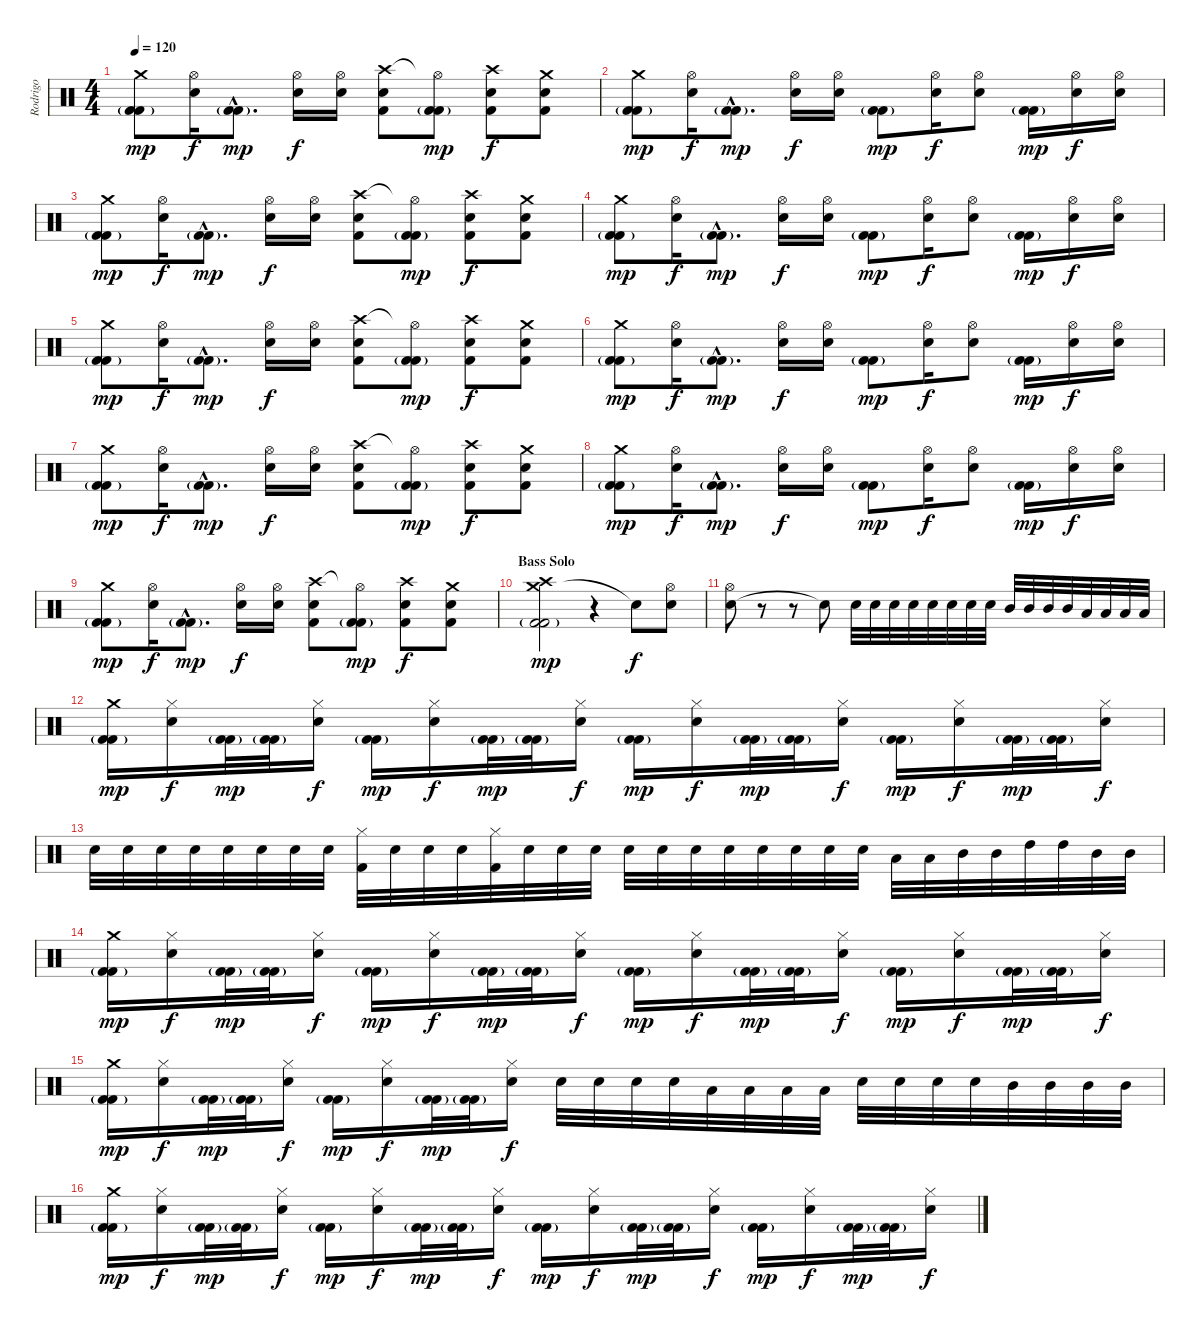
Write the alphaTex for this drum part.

\track ("Rodrigo" "Rodrigo") {instrument percussion}
\staff {score}
\articulation defaults
\ts (4 4)
\tempo 120
\clef neutral
\ks c
("Crash medium (hit)" "Kick (hit) 2"{g} "Kick (hit) 2").8{dy mp} ("Hi-Hat (open)" "Snare (hit) 2").16{dy f} ("Kick (hit) 2"{g hac} "Kick (hit) 2"{hac}).8{d dy mp} ("Hi-Hat (open)" "Snare (hit) 2").16{dy f} ("Hi-Hat (open)" "Snare (hit) 2").16 ("Crash high (hit)" "Snare (hit) 2" "Kick (hit) 2").8 ("Hi-Hat (open)"{t} "Kick (hit) 2"{g} "Kick (hit) 2").8{dy mp} ("Crash high (hit)" "Snare (hit) 2" "Kick (hit) 2").8{dy f} ("Crash medium (hit)" "Snare (hit) 2" "Kick (hit) 2").8 |
("Crash medium (hit)" "Kick (hit) 2"{g} "Kick (hit) 2").8{dy mp} ("Hi-Hat (open)" "Snare (hit) 2").16{dy f} ("Kick (hit) 2"{g hac} "Kick (hit) 2"{hac}).8{d dy mp} ("Hi-Hat (open)" "Snare (hit) 2").16{dy f} ("Hi-Hat (open)" "Snare (hit) 2").16 ("Kick (hit) 2"{g} "Kick (hit) 2").8{dy mp} ("Hi-Hat (open)" "Snare (hit) 2").16{dy f} ("Hi-Hat (open)" "Snare (hit) 2").8 ("Kick (hit) 2"{g} "Kick (hit) 2").16{dy mp} ("Hi-Hat (open)" "Snare (hit) 2").16{dy f} ("Hi-Hat (open)" "Snare (hit) 2").16 |
("Crash medium (hit)" "Kick (hit) 2"{g} "Kick (hit) 2").8{dy mp} ("Hi-Hat (open)" "Snare (hit) 2").16{dy f} ("Kick (hit) 2"{g hac} "Kick (hit) 2"{hac}).8{d dy mp} ("Hi-Hat (open)" "Snare (hit) 2").16{dy f} ("Hi-Hat (open)" "Snare (hit) 2").16 ("Crash high (hit)" "Snare (hit) 2" "Kick (hit) 2").8 ("Hi-Hat (open)"{t} "Kick (hit) 2"{g} "Kick (hit) 2").8{dy mp} ("Crash high (hit)" "Snare (hit) 2" "Kick (hit) 2").8{dy f} ("Crash medium (hit)" "Snare (hit) 2" "Kick (hit) 2").8 |
("Crash medium (hit)" "Kick (hit) 2"{g} "Kick (hit) 2").8{dy mp} ("Hi-Hat (open)" "Snare (hit) 2").16{dy f} ("Kick (hit) 2"{g hac} "Kick (hit) 2"{hac}).8{d dy mp} ("Hi-Hat (open)" "Snare (hit) 2").16{dy f} ("Hi-Hat (open)" "Snare (hit) 2").16 ("Kick (hit) 2"{g} "Kick (hit) 2").8{dy mp} ("Hi-Hat (open)" "Snare (hit) 2").16{dy f} ("Hi-Hat (open)" "Snare (hit) 2").8 ("Kick (hit) 2"{g} "Kick (hit) 2").16{dy mp} ("Hi-Hat (open)" "Snare (hit) 2").16{dy f} ("Hi-Hat (open)" "Snare (hit) 2").16 |
("Crash medium (hit)" "Kick (hit) 2"{g} "Kick (hit) 2").8{dy mp} ("Hi-Hat (open)" "Snare (hit) 2").16{dy f} ("Kick (hit) 2"{g hac} "Kick (hit) 2"{hac}).8{d dy mp} ("Hi-Hat (open)" "Snare (hit) 2").16{dy f} ("Hi-Hat (open)" "Snare (hit) 2").16 ("Crash high (hit)" "Snare (hit) 2" "Kick (hit) 2").8 ("Hi-Hat (open)"{t} "Kick (hit) 2"{g} "Kick (hit) 2").8{dy mp} ("Crash high (hit)" "Snare (hit) 2" "Kick (hit) 2").8{dy f} ("Crash medium (hit)" "Snare (hit) 2" "Kick (hit) 2").8 |
("Crash medium (hit)" "Kick (hit) 2"{g} "Kick (hit) 2").8{dy mp} ("Hi-Hat (open)" "Snare (hit) 2").16{dy f} ("Kick (hit) 2"{g hac} "Kick (hit) 2"{hac}).8{d dy mp} ("Hi-Hat (open)" "Snare (hit) 2").16{dy f} ("Hi-Hat (open)" "Snare (hit) 2").16 ("Kick (hit) 2"{g} "Kick (hit) 2").8{dy mp} ("Hi-Hat (open)" "Snare (hit) 2").16{dy f} ("Hi-Hat (open)" "Snare (hit) 2").8 ("Kick (hit) 2"{g} "Kick (hit) 2").16{dy mp} ("Hi-Hat (open)" "Snare (hit) 2").16{dy f} ("Hi-Hat (open)" "Snare (hit) 2").16 |
("Crash medium (hit)" "Kick (hit) 2"{g} "Kick (hit) 2").8{dy mp} ("Hi-Hat (open)" "Snare (hit) 2").16{dy f} ("Kick (hit) 2"{g hac} "Kick (hit) 2"{hac}).8{d dy mp} ("Hi-Hat (open)" "Snare (hit) 2").16{dy f} ("Hi-Hat (open)" "Snare (hit) 2").16 ("Crash high (hit)" "Snare (hit) 2" "Kick (hit) 2").8 ("Hi-Hat (open)"{t} "Kick (hit) 2"{g} "Kick (hit) 2").8{dy mp} ("Crash high (hit)" "Snare (hit) 2" "Kick (hit) 2").8{dy f} ("Crash medium (hit)" "Snare (hit) 2" "Kick (hit) 2").8 |
("Crash medium (hit)" "Kick (hit) 2"{g} "Kick (hit) 2").8{dy mp} ("Hi-Hat (open)" "Snare (hit) 2").16{dy f} ("Kick (hit) 2"{g hac} "Kick (hit) 2"{hac}).8{d dy mp} ("Hi-Hat (open)" "Snare (hit) 2").16{dy f} ("Hi-Hat (open)" "Snare (hit) 2").16 ("Kick (hit) 2"{g} "Kick (hit) 2").8{dy mp} ("Hi-Hat (open)" "Snare (hit) 2").16{dy f} ("Hi-Hat (open)" "Snare (hit) 2").8 ("Kick (hit) 2"{g} "Kick (hit) 2").16{dy mp} ("Hi-Hat (open)" "Snare (hit) 2").16{dy f} ("Hi-Hat (open)" "Snare (hit) 2").16 |
("Crash medium (hit)" "Kick (hit) 2"{g} "Kick (hit) 2").8{dy mp} ("Hi-Hat (open)" "Snare (hit) 2").16{dy f} ("Kick (hit) 2"{g hac} "Kick (hit) 2"{hac}).8{d dy mp} ("Hi-Hat (open)" "Snare (hit) 2").16{dy f} ("Hi-Hat (open)" "Snare (hit) 2").16 ("Crash high (hit)" "Snare (hit) 2" "Kick (hit) 2").8 ("Hi-Hat (open)"{t} "Kick (hit) 2"{g} "Kick (hit) 2").8{dy mp} ("Crash high (hit)" "Snare (hit) 2" "Kick (hit) 2").8{dy f} ("Crash medium (hit)" "Snare (hit) 2" "Kick (hit) 2").8 |
\section ("" "Bass Solo")
("Crash medium (hit)" "Crash high (hit)" "Kick (hit) 2"{g} "Kick (hit) 2").2{dy mp} r.4 "Snare (hit)"{t}.8{dy f} ("Snare (hit) 2" "Hi-Hat (open)").8 |
("Snare (hit) 2" "Hi-Hat (open)").8 r.8 r.8 "Snare (hit)"{t}.8 "Snare (hit) 2".32 "Snare (hit) 2".32 "Snare (hit) 2".32 "Snare (hit) 2".32 "Snare (hit) 2".32 "Snare (hit) 2".32 "Snare (hit) 2".32 "Snare (hit) 2".32 "Mid Tom (hit)".32 "Mid Tom (hit)".32 "Mid Tom (hit)".32 "Mid Tom (hit)".32 "Low Tom (hit)".32 "Low Tom (hit)".32 "Low Tom (hit)".32 "Low Tom (hit)".32 |
("Crash medium (hit)" "Kick (hit) 2"{g} "Kick (hit) 2").16{dy mp} ("Hi-Hat (closed)" "Snare (hit) 2").16{dy f} ("Kick (hit) 2"{g} "Kick (hit) 2").32{dy mp} ("Kick (hit) 2"{g} "Kick (hit) 2").32 ("Hi-Hat (closed)" "Snare (hit) 2").16{dy f} ("Kick (hit) 2"{g} "Kick (hit) 2").16{dy mp} ("Hi-Hat (closed)" "Snare (hit) 2").16{dy f} ("Kick (hit) 2"{g} "Kick (hit) 2").32{dy mp} ("Kick (hit) 2"{g} "Kick (hit) 2").32 ("Hi-Hat (closed)" "Snare (hit) 2").16{dy f} ("Kick (hit) 2"{g} "Kick (hit) 2").16{dy mp} ("Hi-Hat (closed)" "Snare (hit) 2").16{dy f} ("Kick (hit) 2"{g} "Kick (hit) 2").32{dy mp} ("Kick (hit) 2"{g} "Kick (hit) 2").32 ("Hi-Hat (closed)" "Snare (hit) 2").16{dy f} ("Kick (hit) 2"{g} "Kick (hit) 2").16{dy mp} ("Hi-Hat (closed)" "Snare (hit) 2").16{dy f} ("Kick (hit) 2"{g} "Kick (hit) 2").32{dy mp} ("Kick (hit) 2"{g} "Kick (hit) 2").32 ("Hi-Hat (closed)" "Snare (hit) 2").16{dy f} |
"Snare (hit) 2".32 "Snare (hit) 2".32 "Snare (hit) 2".32 "Snare (hit) 2".32 "Snare (hit) 2".32 "Snare (hit) 2".32 "Snare (hit) 2".32 "Snare (hit) 2".32 ("Kick (hit) 2" "Hi-Hat (closed)").32 "Snare (hit) 2".32 "Snare (hit) 2".32 "Snare (hit) 2".32 ("Kick (hit) 2" "Hi-Hat (closed)").32 "Snare (hit) 2".32 "Snare (hit) 2".32 "Snare (hit) 2".32 "Snare (hit) 2".32 "Snare (hit) 2".32 "Snare (hit) 2".32 "Snare (hit) 2".32 "Snare (hit) 2".32 "Snare (hit) 2".32 "Snare (hit) 2".32 "Snare (hit) 2".32 "Low Tom (hit)".32 "Low Tom (hit)".32 "Mid Tom (hit)".32 "Mid Tom (hit)".32 "High Tom (hit)".32 "High Tom (hit)".32 "Mid Tom (hit)".32 "Mid Tom (hit)".32 |
("Crash medium (hit)" "Kick (hit) 2"{g} "Kick (hit) 2").16{dy mp} ("Hi-Hat (closed)" "Snare (hit) 2").16{dy f} ("Kick (hit) 2"{g} "Kick (hit) 2").32{dy mp} ("Kick (hit) 2"{g} "Kick (hit) 2").32 ("Hi-Hat (closed)" "Snare (hit) 2").16{dy f} ("Kick (hit) 2"{g} "Kick (hit) 2").16{dy mp} ("Hi-Hat (closed)" "Snare (hit) 2").16{dy f} ("Kick (hit) 2"{g} "Kick (hit) 2").32{dy mp} ("Kick (hit) 2"{g} "Kick (hit) 2").32 ("Hi-Hat (closed)" "Snare (hit) 2").16{dy f} ("Kick (hit) 2"{g} "Kick (hit) 2").16{dy mp} ("Hi-Hat (closed)" "Snare (hit) 2").16{dy f} ("Kick (hit) 2"{g} "Kick (hit) 2").32{dy mp} ("Kick (hit) 2"{g} "Kick (hit) 2").32 ("Hi-Hat (closed)" "Snare (hit) 2").16{dy f} ("Kick (hit) 2"{g} "Kick (hit) 2").16{dy mp} ("Hi-Hat (closed)" "Snare (hit) 2").16{dy f} ("Kick (hit) 2"{g} "Kick (hit) 2").32{dy mp} ("Kick (hit) 2"{g} "Kick (hit) 2").32 ("Hi-Hat (closed)" "Snare (hit) 2").16{dy f} |
("Crash medium (hit)" "Kick (hit) 2"{g} "Kick (hit) 2").16{dy mp} ("Hi-Hat (closed)" "Snare (hit) 2").16{dy f} ("Kick (hit) 2"{g} "Kick (hit) 2").32{dy mp} ("Kick (hit) 2"{g} "Kick (hit) 2").32 ("Hi-Hat (closed)" "Snare (hit) 2").16{dy f} ("Kick (hit) 2"{g} "Kick (hit) 2").16{dy mp} ("Hi-Hat (closed)" "Snare (hit) 2").16{dy f} ("Kick (hit) 2"{g} "Kick (hit) 2").32{dy mp} ("Kick (hit) 2"{g} "Kick (hit) 2").32 ("Hi-Hat (closed)" "Snare (hit) 2").16{dy f} "Snare (hit) 2".32 "Snare (hit) 2".32 "Snare (hit) 2".32 "Snare (hit) 2".32 "Low Tom (hit)".32 "Low Tom (hit)".32 "Low Tom (hit)".32 "Low Tom (hit)".32 "Snare (hit) 2".32 "Snare (hit) 2".32 "Snare (hit) 2".32 "Snare (hit) 2".32 "Mid Tom (hit)".32 "Mid Tom (hit)".32 "Mid Tom (hit)".32 "Mid Tom (hit)".32 |
("Crash medium (hit)" "Kick (hit) 2"{g} "Kick (hit) 2").16{dy mp} ("Hi-Hat (closed)" "Snare (hit) 2").16{dy f} ("Kick (hit) 2"{g} "Kick (hit) 2").32{dy mp} ("Kick (hit) 2"{g} "Kick (hit) 2").32 ("Hi-Hat (closed)" "Snare (hit) 2").16{dy f} ("Kick (hit) 2"{g} "Kick (hit) 2").16{dy mp} ("Hi-Hat (closed)" "Snare (hit) 2").16{dy f} ("Kick (hit) 2"{g} "Kick (hit) 2").32{dy mp} ("Kick (hit) 2"{g} "Kick (hit) 2").32 ("Hi-Hat (closed)" "Snare (hit) 2").16{dy f} ("Kick (hit) 2"{g} "Kick (hit) 2").16{dy mp} ("Hi-Hat (closed)" "Snare (hit) 2").16{dy f} ("Kick (hit) 2"{g} "Kick (hit) 2").32{dy mp} ("Kick (hit) 2"{g} "Kick (hit) 2").32 ("Hi-Hat (closed)" "Snare (hit) 2").16{dy f} ("Kick (hit) 2"{g} "Kick (hit) 2").16{dy mp} ("Hi-Hat (closed)" "Snare (hit) 2").16{dy f} ("Kick (hit) 2"{g} "Kick (hit) 2").32{dy mp} ("Kick (hit) 2"{g} "Kick (hit) 2").32 ("Hi-Hat (closed)" "Snare (hit) 2").16{dy f}
